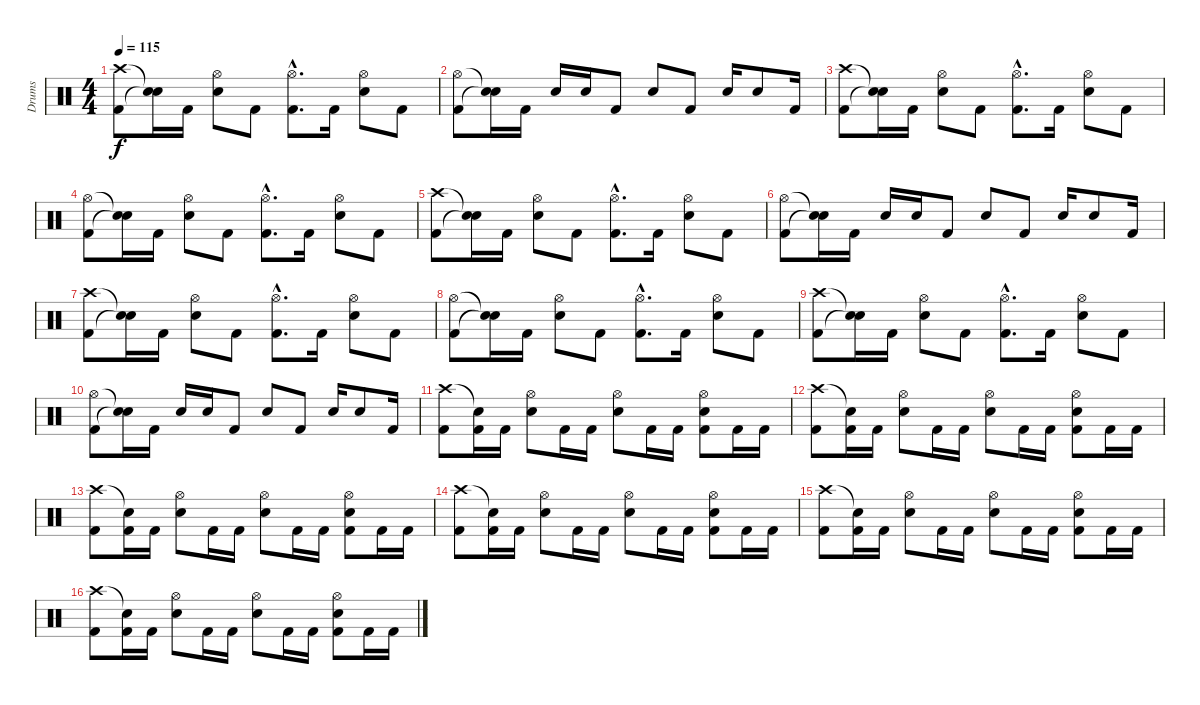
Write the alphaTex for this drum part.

\track ("Drums" "Drums") {instrument percussion}
\staff {score}
\articulation defaults
\ts (4 4)
\tempo 115
\clef neutral
\ks c
("Crash high (hit)" "Kick (hit) 2").8{dy f} ("Snare (hit)"{t} "Snare (hit)"{t}).16 "Kick (hit) 2".16 ("Hi-Hat (open)" "Snare (hit) 2").8 "Kick (hit) 2".8 ("Hi-Hat (open)"{hac} "Kick (hit) 2"{hac}).8{d} "Kick (hit) 2".16 ("Hi-Hat (open)" "Snare (hit) 2").8 "Kick (hit) 2".8 |
("Hi-Hat (open)" "Kick (hit) 2").8 ("Snare (hit)"{t} "Snare (hit)"{t}).16 "Kick (hit) 2".16 "Snare (hit) 2".16 "Snare (hit) 2".16 "Kick (hit) 2".8 "Snare (hit) 2".8 "Kick (hit) 2".8 "Snare (hit) 2".16 "Snare (hit) 2".8 "Kick (hit) 2".16 |
("Crash high (hit)" "Kick (hit) 2").8 ("Snare (hit)"{t} "Snare (hit)"{t}).16 "Kick (hit) 2".16 ("Hi-Hat (open)" "Snare (hit) 2").8 "Kick (hit) 2".8 ("Hi-Hat (open)"{hac} "Kick (hit) 2"{hac}).8{d} "Kick (hit) 2".16 ("Hi-Hat (open)" "Snare (hit) 2").8 "Kick (hit) 2".8 |
("Hi-Hat (open)" "Kick (hit) 2").8 ("Snare (hit)"{t} "Snare (hit)"{t}).16 "Kick (hit) 2".16 ("Hi-Hat (open)" "Snare (hit) 2").8 "Kick (hit) 2".8 ("Hi-Hat (open)"{hac} "Kick (hit) 2"{hac}).8{d} "Kick (hit) 2".16 ("Hi-Hat (open)" "Snare (hit) 2").8 "Kick (hit) 2".8 |
("Crash high (hit)" "Kick (hit) 2").8 ("Snare (hit)"{t} "Snare (hit)"{t}).16 "Kick (hit) 2".16 ("Hi-Hat (open)" "Snare (hit) 2").8 "Kick (hit) 2".8 ("Hi-Hat (open)"{hac} "Kick (hit) 2"{hac}).8{d} "Kick (hit) 2".16 ("Hi-Hat (open)" "Snare (hit) 2").8 "Kick (hit) 2".8 |
("Hi-Hat (open)" "Kick (hit) 2").8 ("Snare (hit)"{t} "Snare (hit)"{t}).16 "Kick (hit) 2".16 "Snare (hit) 2".16 "Snare (hit) 2".16 "Kick (hit) 2".8 "Snare (hit) 2".8 "Kick (hit) 2".8 "Snare (hit) 2".16 "Snare (hit) 2".8 "Kick (hit) 2".16 |
("Crash high (hit)" "Kick (hit) 2").8 ("Snare (hit)"{t} "Snare (hit)"{t}).16 "Kick (hit) 2".16 ("Hi-Hat (open)" "Snare (hit) 2").8 "Kick (hit) 2".8 ("Hi-Hat (open)"{hac} "Kick (hit) 2"{hac}).8{d} "Kick (hit) 2".16 ("Hi-Hat (open)" "Snare (hit) 2").8 "Kick (hit) 2".8 |
("Hi-Hat (open)" "Kick (hit) 2").8 ("Snare (hit)"{t} "Snare (hit)"{t}).16 "Kick (hit) 2".16 ("Hi-Hat (open)" "Snare (hit) 2").8 "Kick (hit) 2".8 ("Hi-Hat (open)"{hac} "Kick (hit) 2"{hac}).8{d} "Kick (hit) 2".16 ("Hi-Hat (open)" "Snare (hit) 2").8 "Kick (hit) 2".8 |
("Crash high (hit)" "Kick (hit) 2").8 ("Snare (hit)"{t} "Snare (hit)"{t}).16 "Kick (hit) 2".16 ("Hi-Hat (open)" "Snare (hit) 2").8 "Kick (hit) 2".8 ("Hi-Hat (open)"{hac} "Kick (hit) 2"{hac}).8{d} "Kick (hit) 2".16 ("Hi-Hat (open)" "Snare (hit) 2").8 "Kick (hit) 2".8 |
("Hi-Hat (open)" "Kick (hit) 2").8 ("Snare (hit)"{t} "Snare (hit)"{t}).16 "Kick (hit) 2".16 "Snare (hit) 2".16 "Snare (hit) 2".16 "Kick (hit) 2".8 "Snare (hit) 2".8 "Kick (hit) 2".8 "Snare (hit) 2".16 "Snare (hit) 2".8 "Kick (hit) 2".16 |
("Crash high (hit)" "Kick (hit) 2").8 ("Snare (hit)"{t} "Kick (hit) 2").16 "Kick (hit) 2".16 ("Hi-Hat (open)" "Snare (hit) 2").8 "Kick (hit) 2".16 "Kick (hit) 2".16 ("Hi-Hat (open)" "Snare (hit) 2").8 "Kick (hit) 2".16 "Kick (hit) 2".16 ("Hi-Hat (open)" "Snare (hit) 2" "Kick (hit) 2").8 "Kick (hit) 2".16 "Kick (hit) 2".16 |
("Crash high (hit)" "Kick (hit) 2").8 ("Snare (hit)"{t} "Kick (hit) 2").16 "Kick (hit) 2".16 ("Hi-Hat (open)" "Snare (hit) 2").8 "Kick (hit) 2".16 "Kick (hit) 2".16 ("Hi-Hat (open)" "Snare (hit) 2").8 "Kick (hit) 2".16 "Kick (hit) 2".16 ("Hi-Hat (open)" "Snare (hit) 2" "Kick (hit) 2").8 "Kick (hit) 2".16 "Kick (hit) 2".16 |
("Crash high (hit)" "Kick (hit) 2").8 ("Snare (hit)"{t} "Kick (hit) 2").16 "Kick (hit) 2".16 ("Hi-Hat (open)" "Snare (hit) 2").8 "Kick (hit) 2".16 "Kick (hit) 2".16 ("Hi-Hat (open)" "Snare (hit) 2").8 "Kick (hit) 2".16 "Kick (hit) 2".16 ("Hi-Hat (open)" "Snare (hit) 2" "Kick (hit) 2").8 "Kick (hit) 2".16 "Kick (hit) 2".16 |
("Crash high (hit)" "Kick (hit) 2").8 ("Snare (hit)"{t} "Kick (hit) 2").16 "Kick (hit) 2".16 ("Hi-Hat (open)" "Snare (hit) 2").8 "Kick (hit) 2".16 "Kick (hit) 2".16 ("Hi-Hat (open)" "Snare (hit) 2").8 "Kick (hit) 2".16 "Kick (hit) 2".16 ("Hi-Hat (open)" "Snare (hit) 2" "Kick (hit) 2").8 "Kick (hit) 2".16 "Kick (hit) 2".16 |
("Crash high (hit)" "Kick (hit) 2").8 ("Snare (hit)"{t} "Kick (hit) 2").16 "Kick (hit) 2".16 ("Hi-Hat (open)" "Snare (hit) 2").8 "Kick (hit) 2".16 "Kick (hit) 2".16 ("Hi-Hat (open)" "Snare (hit) 2").8 "Kick (hit) 2".16 "Kick (hit) 2".16 ("Hi-Hat (open)" "Snare (hit) 2" "Kick (hit) 2").8 "Kick (hit) 2".16 "Kick (hit) 2".16 |
("Crash high (hit)" "Kick (hit) 2").8 ("Snare (hit)"{t} "Kick (hit) 2").16 "Kick (hit) 2".16 ("Hi-Hat (open)" "Snare (hit) 2").8 "Kick (hit) 2".16 "Kick (hit) 2".16 ("Hi-Hat (open)" "Snare (hit) 2").8 "Kick (hit) 2".16 "Kick (hit) 2".16 ("Hi-Hat (open)" "Snare (hit) 2" "Kick (hit) 2").8 "Kick (hit) 2".16 "Kick (hit) 2".16
